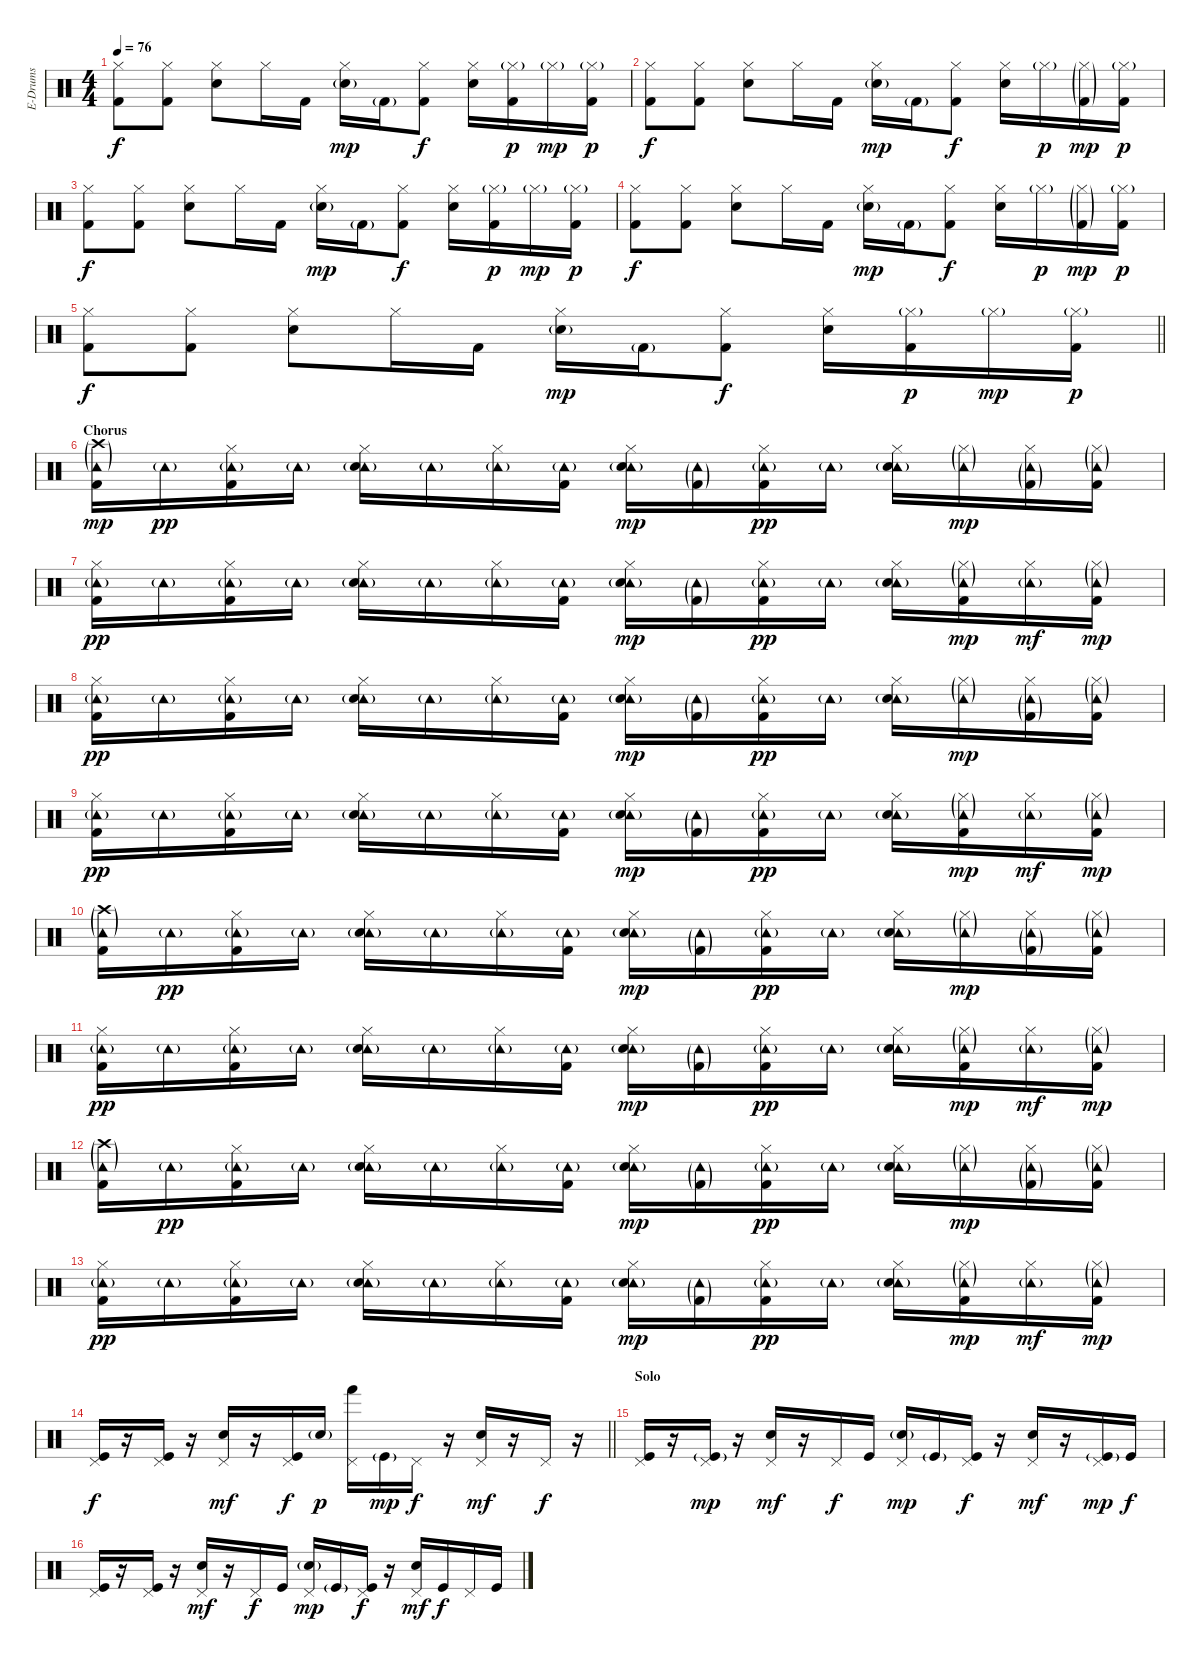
\track ("E-Drums" "E-Drums") {instrument percussion}
\staff {score}
\articulation defaults
\ts (4 4)
\tempo 76
\clef neutral
\ks c
("Hi-Hat (closed)" "Kick (hit) 2").8{dy f} ("Hi-Hat (closed)" "Kick (hit) 2").8 ("Hi-Hat (closed)" "Electric Snare (hit)").8 "Hi-Hat (closed)".16 "Kick (hit) 2".16 ("Hi-Hat (closed)" "Electric Snare (hit)"{g}).16{dy mp} "Kick (hit) 2"{g}.16 ("Hi-Hat (closed)" "Kick (hit) 2").8{dy f} ("Hi-Hat (closed)" "Electric Snare (hit)").16 ("Hi-Hat (closed)"{g} "Kick (hit) 2").16{dy p} "Hi-Hat (closed)"{g}.16{dy mp} ("Hi-Hat (closed)"{g} "Kick (hit) 2").16{dy p} |
("Hi-Hat (closed)" "Kick (hit) 2").8{dy f} ("Hi-Hat (closed)" "Kick (hit) 2").8 ("Hi-Hat (closed)" "Electric Snare (hit)").8 "Hi-Hat (closed)".16 "Kick (hit) 2".16 ("Hi-Hat (closed)" "Electric Snare (hit)"{g}).16{dy mp} "Kick (hit) 2"{g}.16 ("Hi-Hat (closed)" "Kick (hit) 2").8{dy f} ("Hi-Hat (closed)" "Electric Snare (hit)").16 "Hi-Hat (closed)"{g}.16{dy p} ("Hi-Hat (closed)"{g} "Kick (hit) 2"{g}).16{dy mp} ("Hi-Hat (closed)"{g} "Kick (hit) 2").16{dy p} |
("Hi-Hat (closed)" "Kick (hit) 2").8{dy f} ("Hi-Hat (closed)" "Kick (hit) 2").8 ("Hi-Hat (closed)" "Electric Snare (hit)").8 "Hi-Hat (closed)".16 "Kick (hit) 2".16 ("Hi-Hat (closed)" "Electric Snare (hit)"{g}).16{dy mp} "Kick (hit) 2"{g}.16 ("Hi-Hat (closed)" "Kick (hit) 2").8{dy f} ("Hi-Hat (closed)" "Electric Snare (hit)").16 ("Hi-Hat (closed)"{g} "Kick (hit) 2").16{dy p} "Hi-Hat (closed)"{g}.16{dy mp} ("Hi-Hat (closed)"{g} "Kick (hit) 2").16{dy p} |
("Hi-Hat (closed)" "Kick (hit) 2").8{dy f} ("Hi-Hat (closed)" "Kick (hit) 2").8 ("Hi-Hat (closed)" "Electric Snare (hit)").8 "Hi-Hat (closed)".16 "Kick (hit) 2".16 ("Hi-Hat (closed)" "Electric Snare (hit)"{g}).16{dy mp} "Kick (hit) 2"{g}.16 ("Hi-Hat (closed)" "Kick (hit) 2").8{dy f} ("Hi-Hat (closed)" "Electric Snare (hit)").16 "Hi-Hat (closed)"{g}.16{dy p} ("Hi-Hat (closed)"{g} "Kick (hit) 2"{g}).16{dy mp} ("Hi-Hat (closed)"{g} "Kick (hit) 2").16{dy p} |
\barLineRight lightlight
("Hi-Hat (closed)" "Kick (hit) 2").8{dy f} ("Hi-Hat (closed)" "Kick (hit) 2").8 ("Hi-Hat (closed)" "Electric Snare (hit)").8 "Hi-Hat (closed)".16 "Kick (hit) 2".16 ("Hi-Hat (closed)" "Electric Snare (hit)"{g}).16{dy mp} "Kick (hit) 2"{g}.16 ("Hi-Hat (closed)" "Kick (hit) 2").8{dy f} ("Hi-Hat (closed)" "Electric Snare (hit)").16 ("Hi-Hat (closed)"{g} "Kick (hit) 2").16{dy p} "Hi-Hat (closed)"{g}.16{dy mp} ("Hi-Hat (closed)"{g} "Kick (hit) 2").16{dy p} |
\section ("" "Chorus")
("Tambourine (hit)"{g} "Crash high (hit)"{g} "Kick (hit) 2").16{dy mp} "Tambourine (hit)"{g}.16{dy pp} ("Tambourine (hit)"{g} "Hi-Hat (closed)" "Kick (hit) 2").16 "Tambourine (hit)"{g}.16 ("Tambourine (hit)"{g} "Hi-Hat (closed)" "Electric Snare (hit)").16 "Tambourine (hit)"{g}.16 ("Tambourine (hit)"{g} "Hi-Hat (closed)").16 ("Tambourine (hit)"{g} "Kick (hit) 2").16 ("Tambourine (hit)"{g} "Hi-Hat (closed)" "Electric Snare (hit)"{g}).16{dy mp} ("Tambourine (hit)"{g} "Kick (hit) 2"{g}).16 ("Tambourine (hit)"{g} "Hi-Hat (closed)" "Kick (hit) 2").16{dy pp} "Tambourine (hit)"{g}.16 ("Tambourine (hit)"{g} "Hi-Hat (closed)" "Electric Snare (hit)").16 ("Tambourine (hit)"{g} "Hi-Hat (closed)"{g}).16{dy mp} ("Tambourine (hit)"{g} "Hi-Hat (closed)" "Kick (hit) 2"{g}).16 ("Tambourine (hit)"{g} "Hi-Hat (closed)"{g} "Kick (hit) 2").16 |
("Tambourine (hit)"{g} "Hi-Hat (closed)" "Kick (hit) 2").16{dy pp} "Tambourine (hit)"{g}.16 ("Tambourine (hit)"{g} "Hi-Hat (closed)" "Kick (hit) 2").16 "Tambourine (hit)"{g}.16 ("Tambourine (hit)"{g} "Hi-Hat (closed)" "Electric Snare (hit)").16 "Tambourine (hit)"{g}.16 ("Tambourine (hit)"{g} "Hi-Hat (closed)").16 ("Tambourine (hit)"{g} "Kick (hit) 2").16 ("Tambourine (hit)"{g} "Hi-Hat (closed)" "Electric Snare (hit)"{g}).16{dy mp} ("Tambourine (hit)"{g} "Kick (hit) 2"{g}).16 ("Tambourine (hit)"{g} "Hi-Hat (closed)" "Kick (hit) 2").16{dy pp} "Tambourine (hit)"{g}.16 ("Tambourine (hit)"{g} "Hi-Hat (closed)" "Electric Snare (hit)").16 ("Tambourine (hit)"{g} "Hi-Hat (closed)"{g} "Kick (hit) 2").16{dy mp} ("Tambourine (hit)"{g} "Hi-Hat (closed)").16{dy mf} ("Tambourine (hit)"{g} "Hi-Hat (closed)"{g} "Kick (hit) 2").16{dy mp} |
("Tambourine (hit)"{g} "Hi-Hat (closed)" "Kick (hit) 2").16{dy pp} "Tambourine (hit)"{g}.16 ("Tambourine (hit)"{g} "Hi-Hat (closed)" "Kick (hit) 2").16 "Tambourine (hit)"{g}.16 ("Tambourine (hit)"{g} "Hi-Hat (closed)" "Electric Snare (hit)").16 "Tambourine (hit)"{g}.16 ("Tambourine (hit)"{g} "Hi-Hat (closed)").16 ("Tambourine (hit)"{g} "Kick (hit) 2").16 ("Tambourine (hit)"{g} "Hi-Hat (closed)" "Electric Snare (hit)"{g}).16{dy mp} ("Tambourine (hit)"{g} "Kick (hit) 2"{g}).16 ("Tambourine (hit)"{g} "Hi-Hat (closed)" "Kick (hit) 2").16{dy pp} "Tambourine (hit)"{g}.16 ("Tambourine (hit)"{g} "Hi-Hat (closed)" "Electric Snare (hit)").16 ("Tambourine (hit)"{g} "Hi-Hat (closed)"{g}).16{dy mp} ("Tambourine (hit)"{g} "Hi-Hat (closed)" "Kick (hit) 2"{g}).16 ("Tambourine (hit)"{g} "Hi-Hat (closed)"{g} "Kick (hit) 2").16 |
("Tambourine (hit)"{g} "Hi-Hat (closed)" "Kick (hit) 2").16{dy pp} "Tambourine (hit)"{g}.16 ("Tambourine (hit)"{g} "Hi-Hat (closed)" "Kick (hit) 2").16 "Tambourine (hit)"{g}.16 ("Tambourine (hit)"{g} "Hi-Hat (closed)" "Electric Snare (hit)").16 "Tambourine (hit)"{g}.16 ("Tambourine (hit)"{g} "Hi-Hat (closed)").16 ("Tambourine (hit)"{g} "Kick (hit) 2").16 ("Tambourine (hit)"{g} "Hi-Hat (closed)" "Electric Snare (hit)"{g}).16{dy mp} ("Tambourine (hit)"{g} "Kick (hit) 2"{g}).16 ("Tambourine (hit)"{g} "Hi-Hat (closed)" "Kick (hit) 2").16{dy pp} "Tambourine (hit)"{g}.16 ("Tambourine (hit)"{g} "Hi-Hat (closed)" "Electric Snare (hit)").16 ("Tambourine (hit)"{g} "Hi-Hat (closed)"{g} "Kick (hit) 2").16{dy mp} ("Tambourine (hit)"{g} "Hi-Hat (closed)").16{dy mf} ("Tambourine (hit)"{g} "Hi-Hat (closed)"{g} "Kick (hit) 2").16{dy mp} |
("Tambourine (hit)"{g} "Crash high (hit)"{g} "Kick (hit) 2").16 "Tambourine (hit)"{g}.16{dy pp} ("Tambourine (hit)"{g} "Hi-Hat (closed)" "Kick (hit) 2").16 "Tambourine (hit)"{g}.16 ("Tambourine (hit)"{g} "Hi-Hat (closed)" "Electric Snare (hit)").16 "Tambourine (hit)"{g}.16 ("Tambourine (hit)"{g} "Hi-Hat (closed)").16 ("Tambourine (hit)"{g} "Kick (hit) 2").16 ("Tambourine (hit)"{g} "Hi-Hat (closed)" "Electric Snare (hit)"{g}).16{dy mp} ("Tambourine (hit)"{g} "Kick (hit) 2"{g}).16 ("Tambourine (hit)"{g} "Hi-Hat (closed)" "Kick (hit) 2").16{dy pp} "Tambourine (hit)"{g}.16 ("Tambourine (hit)"{g} "Hi-Hat (closed)" "Electric Snare (hit)").16 ("Tambourine (hit)"{g} "Hi-Hat (closed)"{g}).16{dy mp} ("Tambourine (hit)"{g} "Hi-Hat (closed)" "Kick (hit) 2"{g}).16 ("Tambourine (hit)"{g} "Hi-Hat (closed)"{g} "Kick (hit) 2").16 |
("Tambourine (hit)"{g} "Hi-Hat (closed)" "Kick (hit) 2").16{dy pp} "Tambourine (hit)"{g}.16 ("Tambourine (hit)"{g} "Hi-Hat (closed)" "Kick (hit) 2").16 "Tambourine (hit)"{g}.16 ("Tambourine (hit)"{g} "Hi-Hat (closed)" "Electric Snare (hit)").16 "Tambourine (hit)"{g}.16 ("Tambourine (hit)"{g} "Hi-Hat (closed)").16 ("Tambourine (hit)"{g} "Kick (hit) 2").16 ("Tambourine (hit)"{g} "Hi-Hat (closed)" "Electric Snare (hit)"{g}).16{dy mp} ("Tambourine (hit)"{g} "Kick (hit) 2"{g}).16 ("Tambourine (hit)"{g} "Hi-Hat (closed)" "Kick (hit) 2").16{dy pp} "Tambourine (hit)"{g}.16 ("Tambourine (hit)"{g} "Hi-Hat (closed)" "Electric Snare (hit)").16 ("Tambourine (hit)"{g} "Hi-Hat (closed)"{g} "Kick (hit) 2").16{dy mp} ("Tambourine (hit)"{g} "Hi-Hat (closed)").16{dy mf} ("Tambourine (hit)"{g} "Hi-Hat (closed)"{g} "Kick (hit) 2").16{dy mp} |
("Tambourine (hit)"{g} "Crash high (hit)"{g} "Kick (hit) 2").16 "Tambourine (hit)"{g}.16{dy pp} ("Tambourine (hit)"{g} "Hi-Hat (closed)" "Kick (hit) 2").16 "Tambourine (hit)"{g}.16 ("Tambourine (hit)"{g} "Hi-Hat (closed)" "Electric Snare (hit)").16 "Tambourine (hit)"{g}.16 ("Tambourine (hit)"{g} "Hi-Hat (closed)").16 ("Tambourine (hit)"{g} "Kick (hit) 2").16 ("Tambourine (hit)"{g} "Hi-Hat (closed)" "Electric Snare (hit)"{g}).16{dy mp} ("Tambourine (hit)"{g} "Kick (hit) 2"{g}).16 ("Tambourine (hit)"{g} "Hi-Hat (closed)" "Kick (hit) 2").16{dy pp} "Tambourine (hit)"{g}.16 ("Tambourine (hit)"{g} "Hi-Hat (closed)" "Electric Snare (hit)").16 ("Tambourine (hit)"{g} "Hi-Hat (closed)"{g}).16{dy mp} ("Tambourine (hit)"{g} "Hi-Hat (closed)" "Kick (hit) 2"{g}).16 ("Tambourine (hit)"{g} "Hi-Hat (closed)"{g} "Kick (hit) 2").16 |
("Tambourine (hit)"{g} "Hi-Hat (closed)" "Kick (hit) 2").16{dy pp} "Tambourine (hit)"{g}.16 ("Tambourine (hit)"{g} "Hi-Hat (closed)" "Kick (hit) 2").16 "Tambourine (hit)"{g}.16 ("Tambourine (hit)"{g} "Hi-Hat (closed)" "Electric Snare (hit)").16 "Tambourine (hit)"{g}.16 ("Tambourine (hit)"{g} "Hi-Hat (closed)").16 ("Tambourine (hit)"{g} "Kick (hit) 2").16 ("Tambourine (hit)"{g} "Hi-Hat (closed)" "Electric Snare (hit)"{g}).16{dy mp} ("Tambourine (hit)"{g} "Kick (hit) 2"{g}).16 ("Tambourine (hit)"{g} "Hi-Hat (closed)" "Kick (hit) 2").16{dy pp} "Tambourine (hit)"{g}.16 ("Tambourine (hit)"{g} "Hi-Hat (closed)" "Electric Snare (hit)").16 ("Tambourine (hit)"{g} "Hi-Hat (closed)"{g} "Kick (hit) 2").16{dy mp} ("Tambourine (hit)"{g} "Hi-Hat (closed)").16{dy mf} ("Tambourine (hit)"{g} "Hi-Hat (closed)"{g} "Kick (hit) 2").16{dy mp} |
\barLineRight lightlight
("Pedal Hi-Hat (hit)" "Kick (hit)").16{dy f} r.16 ("Pedal Hi-Hat (hit)" "Kick (hit)").16 r.16 ("Pedal Hi-Hat (hit)" "Electric Snare (hit)").16{dy mf} r.16 ("Pedal Hi-Hat (hit)" "Kick (hit)").16{dy f} "Electric Snare (hit)"{g}.16{dy p} ("Pedal Hi-Hat (hit)" "Hand (hit)").16 "Kick (hit)"{g}.16{dy mp} "Pedal Hi-Hat (hit)".16{dy f} r.16 ("Pedal Hi-Hat (hit)" "Electric Snare (hit)").16{dy mf} r.16 "Pedal Hi-Hat (hit)".16{dy f} r.16 |
\section ("" "Solo")
("Pedal Hi-Hat (hit)" "Kick (hit)").16 r.16 ("Pedal Hi-Hat (hit)" "Kick (hit)"{g}).16{dy mp} r.16 ("Pedal Hi-Hat (hit)" "Electric Snare (hit)").16{dy mf} r.16 "Pedal Hi-Hat (hit)".16{dy f} "Kick (hit)".16 ("Pedal Hi-Hat (hit)" "Electric Snare (hit)"{g}).16{dy mp} "Kick (hit)"{g}.16 ("Pedal Hi-Hat (hit)" "Kick (hit)").16{dy f} r.16 ("Pedal Hi-Hat (hit)" "Electric Snare (hit)").16{dy mf} r.16 ("Pedal Hi-Hat (hit)" "Kick (hit)"{g}).16{dy mp} "Kick (hit)".16{dy f} |
("Pedal Hi-Hat (hit)" "Kick (hit)").16 r.16 ("Pedal Hi-Hat (hit)" "Kick (hit)").16 r.16 ("Pedal Hi-Hat (hit)" "Electric Snare (hit)").16{dy mf} r.16 "Pedal Hi-Hat (hit)".16{dy f} "Kick (hit)".16 ("Pedal Hi-Hat (hit)" "Electric Snare (hit)"{g}).16{dy mp} "Kick (hit)"{g}.16 ("Pedal Hi-Hat (hit)" "Kick (hit)").16{dy f} r.16 ("Pedal Hi-Hat (hit)" "Electric Snare (hit)").16{dy mf} "Kick (hit)".16{dy f} "Pedal Hi-Hat (hit)".16 "Kick (hit)".16
